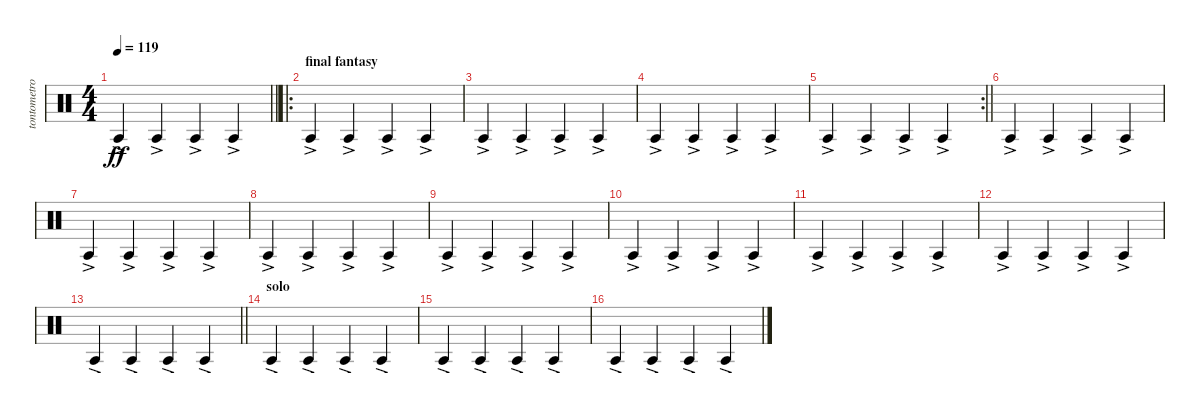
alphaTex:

\track ("tontometro" "tontometro") {mute instrument percussion}
\staff {score}
\articulation defaults
\ts (4 4)
\tempo 119
\clef neutral
\barLineRight lightlight
\ks c "Agogo tow (hit)"{ac}.4{dy ff} "Agogo tow (hit)"{ac}.4 "Agogo tow (hit)"{ac}.4 "Agogo tow (hit)"{ac}.4
|
\ro
\section ("" "final fantasy")
"Agogo tow (hit)"{ac}.4 "Agogo tow (hit)"{ac}.4 "Agogo tow (hit)"{ac}.4 "Agogo tow (hit)"{ac}.4 |
"Agogo tow (hit)"{ac}.4 "Agogo tow (hit)"{ac}.4 "Agogo tow (hit)"{ac}.4 "Agogo tow (hit)"{ac}.4 |
"Agogo tow (hit)"{ac}.4 "Agogo tow (hit)"{ac}.4 "Agogo tow (hit)"{ac}.4 "Agogo tow (hit)"{ac}.4 |
\rc 2
\barLineRight lightlight "Agogo tow (hit)"{ac}.4 "Agogo tow (hit)"{ac}.4 "Agogo tow (hit)"{ac}.4 "Agogo tow (hit)"{ac}.4
|
\section ("" "")
"Agogo tow (hit)"{ac}.4 "Agogo tow (hit)"{ac}.4 "Agogo tow (hit)"{ac}.4 "Agogo tow (hit)"{ac}.4 |
"Agogo tow (hit)"{ac}.4 "Agogo tow (hit)"{ac}.4 "Agogo tow (hit)"{ac}.4 "Agogo tow (hit)"{ac}.4 |
"Agogo tow (hit)"{ac}.4 "Agogo tow (hit)"{ac}.4 "Agogo tow (hit)"{ac}.4 "Agogo tow (hit)"{ac}.4 |
"Agogo tow (hit)"{ac}.4 "Agogo tow (hit)"{ac}.4 "Agogo tow (hit)"{ac}.4 "Agogo tow (hit)"{ac}.4 |
"Agogo tow (hit)"{ac}.4 "Agogo tow (hit)"{ac}.4 "Agogo tow (hit)"{ac}.4 "Agogo tow (hit)"{ac}.4 |
"Agogo tow (hit)"{ac}.4 "Agogo tow (hit)"{ac}.4 "Agogo tow (hit)"{ac}.4 "Agogo tow (hit)"{ac}.4 |
"Agogo tow (hit)"{ac}.4 "Agogo tow (hit)"{ac}.4 "Agogo tow (hit)"{ac}.4 "Agogo tow (hit)"{ac}.4 |
\barLineRight lightlight "Agogo tow (hit)"{ac}.4 "Agogo tow (hit)"{ac}.4 "Agogo tow (hit)"{ac}.4 "Agogo tow (hit)"{ac}.4
|
\section ("" "solo")
"Agogo tow (hit)"{ac}.4 "Agogo tow (hit)"{ac}.4 "Agogo tow (hit)"{ac}.4 "Agogo tow (hit)"{ac}.4 |
"Agogo tow (hit)"{ac}.4 "Agogo tow (hit)"{ac}.4 "Agogo tow (hit)"{ac}.4 "Agogo tow (hit)"{ac}.4 |
"Agogo tow (hit)"{ac}.4 "Agogo tow (hit)"{ac}.4 "Agogo tow (hit)"{ac}.4 "Agogo tow (hit)"{ac}.4
